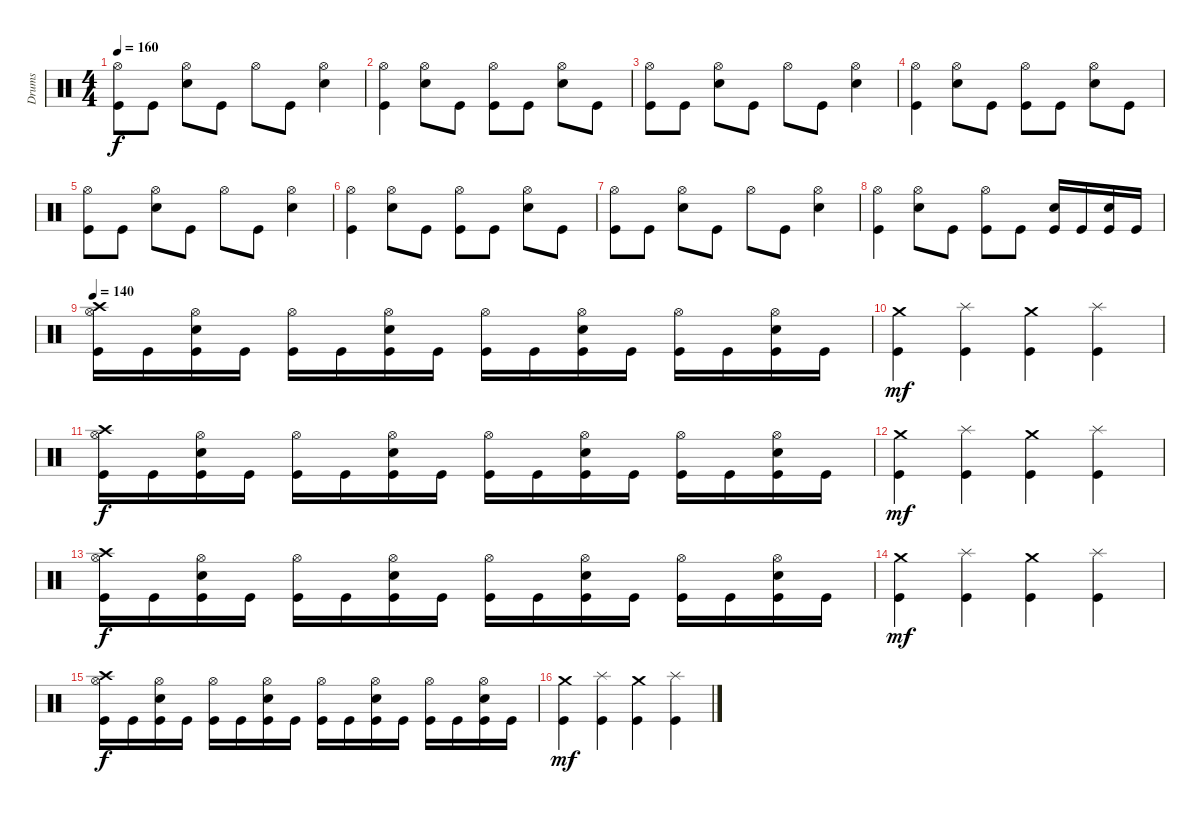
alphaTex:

\track ("Drums" "Drums") {instrument percussion}
\staff {score}
\articulation defaults
\ts (4 4)
\tempo 160
\clef neutral
\ks c
("Hi-Hat (open)" "Kick (hit)").8{dy f} "Kick (hit)".8 ("Hi-Hat (open)" "Snare (hit) 2").8 "Kick (hit)".8 "Hi-Hat (open)".8 "Kick (hit)".8 ("Hi-Hat (open)" "Snare (hit) 2").4 |
("Hi-Hat (open)" "Kick (hit)").4 ("Hi-Hat (open)" "Snare (hit) 2").8 "Kick (hit)".8 ("Hi-Hat (open)" "Kick (hit)").8 "Kick (hit)".8 ("Hi-Hat (open)" "Snare (hit) 2").8 "Kick (hit)".8 |
("Hi-Hat (open)" "Kick (hit)").8 "Kick (hit)".8 ("Hi-Hat (open)" "Snare (hit) 2").8 "Kick (hit)".8 "Hi-Hat (open)".8 "Kick (hit)".8 ("Hi-Hat (open)" "Snare (hit) 2").4 |
("Hi-Hat (open)" "Kick (hit)").4 ("Hi-Hat (open)" "Snare (hit) 2").8 "Kick (hit)".8 ("Hi-Hat (open)" "Kick (hit)").8 "Kick (hit)".8 ("Hi-Hat (open)" "Snare (hit) 2").8 "Kick (hit)".8 |
("Hi-Hat (open)" "Kick (hit)").8 "Kick (hit)".8 ("Hi-Hat (open)" "Snare (hit) 2").8 "Kick (hit)".8 "Hi-Hat (open)".8 "Kick (hit)".8 ("Hi-Hat (open)" "Snare (hit) 2").4 |
("Hi-Hat (open)" "Kick (hit)").4 ("Hi-Hat (open)" "Snare (hit) 2").8 "Kick (hit)".8 ("Hi-Hat (open)" "Kick (hit)").8 "Kick (hit)".8 ("Hi-Hat (open)" "Snare (hit) 2").8 "Kick (hit)".8 |
("Hi-Hat (open)" "Kick (hit)").8 "Kick (hit)".8 ("Hi-Hat (open)" "Snare (hit) 2").8 "Kick (hit)".8 "Hi-Hat (open)".8 "Kick (hit)".8 ("Hi-Hat (open)" "Snare (hit) 2").4 |
("Hi-Hat (open)" "Kick (hit)").4 ("Hi-Hat (open)" "Snare (hit) 2").8 "Kick (hit)".8 ("Hi-Hat (open)" "Kick (hit)").8 "Kick (hit)".8 ("Snare (hit) 2" "Kick (hit)").16 "Kick (hit)".16 ("Snare (hit) 2" "Kick (hit)").16 "Kick (hit)".16 |
\tempo 140
("Crash high (hit)" "Hi-Hat (open)" "Kick (hit)").16 "Kick (hit)".16 ("Hi-Hat (open)" "Snare (hit) 2" "Kick (hit)").16 "Kick (hit)".16 ("Hi-Hat (open)" "Kick (hit)").16 "Kick (hit)".16 ("Hi-Hat (open)" "Snare (hit) 2" "Kick (hit)").16 "Kick (hit)".16 ("Hi-Hat (open)" "Kick (hit)").16 "Kick (hit)".16 ("Hi-Hat (open)" "Snare (hit) 2" "Kick (hit)").16 "Kick (hit)".16 ("Hi-Hat (open)" "Kick (hit)").16 "Kick (hit)".16 ("Hi-Hat (open)" "Snare (hit) 2" "Kick (hit)").16 "Kick (hit)".16 |
("Crash medium (hit)" "Kick (hit)").4{dy mf} ("Splash (hit)" "Kick (hit)").4 ("Crash medium (hit)" "Kick (hit)").4 ("Splash (hit)" "Kick (hit)").4 |
("Crash high (hit)" "Hi-Hat (open)" "Kick (hit)").16{dy f} "Kick (hit)".16 ("Hi-Hat (open)" "Snare (hit) 2" "Kick (hit)").16 "Kick (hit)".16 ("Hi-Hat (open)" "Kick (hit)").16 "Kick (hit)".16 ("Hi-Hat (open)" "Snare (hit) 2" "Kick (hit)").16 "Kick (hit)".16 ("Hi-Hat (open)" "Kick (hit)").16 "Kick (hit)".16 ("Hi-Hat (open)" "Snare (hit) 2" "Kick (hit)").16 "Kick (hit)".16 ("Hi-Hat (open)" "Kick (hit)").16 "Kick (hit)".16 ("Hi-Hat (open)" "Snare (hit) 2" "Kick (hit)").16 "Kick (hit)".16 |
("Crash medium (hit)" "Kick (hit)").4{dy mf} ("Splash (hit)" "Kick (hit)").4 ("Crash medium (hit)" "Kick (hit)").4 ("Splash (hit)" "Kick (hit)").4 |
("Crash high (hit)" "Hi-Hat (open)" "Kick (hit)").16{dy f} "Kick (hit)".16 ("Hi-Hat (open)" "Snare (hit) 2" "Kick (hit)").16 "Kick (hit)".16 ("Hi-Hat (open)" "Kick (hit)").16 "Kick (hit)".16 ("Hi-Hat (open)" "Snare (hit) 2" "Kick (hit)").16 "Kick (hit)".16 ("Hi-Hat (open)" "Kick (hit)").16 "Kick (hit)".16 ("Hi-Hat (open)" "Snare (hit) 2" "Kick (hit)").16 "Kick (hit)".16 ("Hi-Hat (open)" "Kick (hit)").16 "Kick (hit)".16 ("Hi-Hat (open)" "Snare (hit) 2" "Kick (hit)").16 "Kick (hit)".16 |
("Crash medium (hit)" "Kick (hit)").4{dy mf} ("Splash (hit)" "Kick (hit)").4 ("Crash medium (hit)" "Kick (hit)").4 ("Splash (hit)" "Kick (hit)").4 |
("Crash high (hit)" "Hi-Hat (open)" "Kick (hit)").16{dy f} "Kick (hit)".16 ("Hi-Hat (open)" "Snare (hit) 2" "Kick (hit)").16 "Kick (hit)".16 ("Hi-Hat (open)" "Kick (hit)").16 "Kick (hit)".16 ("Hi-Hat (open)" "Snare (hit) 2" "Kick (hit)").16 "Kick (hit)".16 ("Hi-Hat (open)" "Kick (hit)").16 "Kick (hit)".16 ("Hi-Hat (open)" "Snare (hit) 2" "Kick (hit)").16 "Kick (hit)".16 ("Hi-Hat (open)" "Kick (hit)").16 "Kick (hit)".16 ("Hi-Hat (open)" "Snare (hit) 2" "Kick (hit)").16 "Kick (hit)".16 |
("Crash medium (hit)" "Kick (hit)").4{dy mf} ("Splash (hit)" "Kick (hit)").4 ("Crash medium (hit)" "Kick (hit)").4 ("Splash (hit)" "Kick (hit)").4
